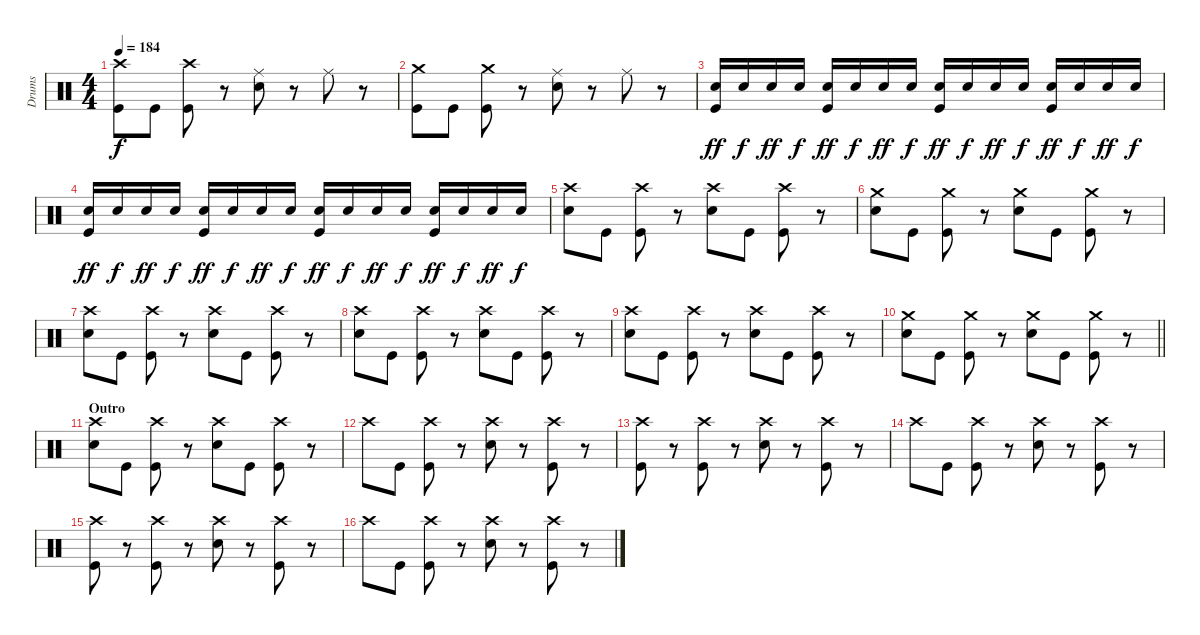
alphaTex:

\track ("Drums" "Drums") {instrument percussion}
\staff {score}
\articulation defaults
\ts (4 4)
\tempo 184
\clef neutral
\ks c
("Crash high (hit)" "Kick (hit)").8{dy f} "Kick (hit)".8 ("Crash high (hit)" "Kick (hit)").8 r.8 ("Ride (middle)" "Electric Snare (hit)").8 r.8 "Ride (middle)".8 r.8 |
("Crash medium (hit)" "Kick (hit)").8 "Kick (hit)".8 ("Crash medium (hit)" "Kick (hit)").8 r.8 ("Ride (middle)" "Electric Snare (hit)").8 r.8 "Ride (middle)".8 r.8 |
("Electric Snare (hit)" "Kick (hit)").16{dy ff} "Electric Snare (hit)".16{dy f} "Electric Snare (hit)".16{dy ff} "Electric Snare (hit)".16{dy f} ("Electric Snare (hit)" "Kick (hit)").16{dy ff} "Electric Snare (hit)".16{dy f} "Electric Snare (hit)".16{dy ff} "Electric Snare (hit)".16{dy f} ("Electric Snare (hit)" "Kick (hit)").16{dy ff} "Electric Snare (hit)".16{dy f} "Electric Snare (hit)".16{dy ff} "Electric Snare (hit)".16{dy f} ("Electric Snare (hit)" "Kick (hit)").16{dy ff} "Electric Snare (hit)".16{dy f} "Electric Snare (hit)".16{dy ff} "Electric Snare (hit)".16{dy f} |
("Electric Snare (hit)" "Kick (hit)").16{dy ff} "Electric Snare (hit)".16{dy f} "Electric Snare (hit)".16{dy ff} "Electric Snare (hit)".16{dy f} ("Electric Snare (hit)" "Kick (hit)").16{dy ff} "Electric Snare (hit)".16{dy f} "Electric Snare (hit)".16{dy ff} "Electric Snare (hit)".16{dy f} ("Electric Snare (hit)" "Kick (hit)").16{dy ff} "Electric Snare (hit)".16{dy f} "Electric Snare (hit)".16{dy ff} "Electric Snare (hit)".16{dy f} ("Electric Snare (hit)" "Kick (hit)").16{dy ff} "Electric Snare (hit)".16{dy f} "Electric Snare (hit)".16{dy ff} "Electric Snare (hit)".16{dy f} |
("Crash high (hit)" "Electric Snare (hit)").8 "Kick (hit)".8 ("Crash high (hit)" "Kick (hit)").8 r.8 ("Crash high (hit)" "Electric Snare (hit)").8 "Kick (hit)".8 ("Crash high (hit)" "Kick (hit)").8 r.8 |
("Crash medium (hit)" "Electric Snare (hit)").8 "Kick (hit)".8 ("Crash medium (hit)" "Kick (hit)").8 r.8 ("Crash medium (hit)" "Electric Snare (hit)").8 "Kick (hit)".8 ("Crash medium (hit)" "Kick (hit)").8 r.8 |
("Crash high (hit)" "Electric Snare (hit)").8 "Kick (hit)".8 ("Crash high (hit)" "Kick (hit)").8 r.8 ("Crash high (hit)" "Electric Snare (hit)").8 "Kick (hit)".8 ("Crash high (hit)" "Kick (hit)").8 r.8 |
("Crash high (hit)" "Electric Snare (hit)").8 "Kick (hit)".8 ("Crash high (hit)" "Kick (hit)").8 r.8 ("Crash high (hit)" "Electric Snare (hit)").8 "Kick (hit)".8 ("Crash high (hit)" "Kick (hit)").8 r.8 |
("Crash high (hit)" "Electric Snare (hit)").8 "Kick (hit)".8 ("Crash high (hit)" "Kick (hit)").8 r.8 ("Crash high (hit)" "Electric Snare (hit)").8 "Kick (hit)".8 ("Crash high (hit)" "Kick (hit)").8 r.8 |
\barLineRight lightlight
("Crash medium (hit)" "Electric Snare (hit)").8 "Kick (hit)".8 ("Crash medium (hit)" "Kick (hit)").8 r.8 ("Crash medium (hit)" "Electric Snare (hit)").8 "Kick (hit)".8 ("Crash medium (hit)" "Kick (hit)").8 r.8 |
\section ("" "Outro")
("Crash high (hit)" "Electric Snare (hit)").8 "Kick (hit)".8 ("Crash high (hit)" "Kick (hit)").8 r.8 ("Crash high (hit)" "Electric Snare (hit)").8 "Kick (hit)".8 ("Crash high (hit)" "Kick (hit)").8 r.8 |
"Crash high (hit)".8 "Kick (hit)".8 ("Crash high (hit)" "Kick (hit)").8 r.8 ("Crash high (hit)" "Electric Snare (hit)").8 r.8 ("Crash high (hit)" "Kick (hit)").8 r.8 |
("Crash high (hit)" "Kick (hit)").8 r.8 ("Crash high (hit)" "Kick (hit)").8 r.8 ("Crash high (hit)" "Electric Snare (hit)").8 r.8 ("Crash high (hit)" "Kick (hit)").8 r.8 |
"Crash high (hit)".8 "Kick (hit)".8 ("Crash high (hit)" "Kick (hit)").8 r.8 ("Crash high (hit)" "Electric Snare (hit)").8 r.8 ("Crash high (hit)" "Kick (hit)").8 r.8 |
("Crash high (hit)" "Kick (hit)").8 r.8 ("Crash high (hit)" "Kick (hit)").8 r.8 ("Crash high (hit)" "Electric Snare (hit)").8 r.8 ("Crash high (hit)" "Kick (hit)").8 r.8 |
"Crash high (hit)".8 "Kick (hit)".8 ("Crash high (hit)" "Kick (hit)").8 r.8 ("Crash high (hit)" "Electric Snare (hit)").8 r.8 ("Crash high (hit)" "Kick (hit)").8 r.8
